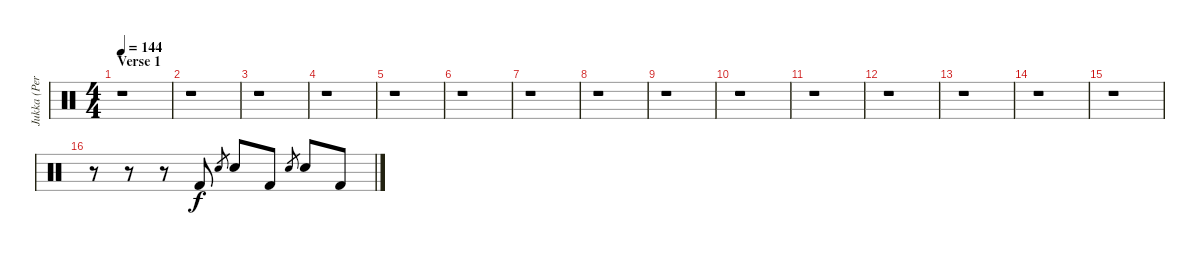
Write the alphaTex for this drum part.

\track ("Jukka (Percussion)" "Jukka (Per") {instrument percussion}
\staff {score}
\articulation defaults
\ts (4 4)
\section ("" "Verse 1")
\tempo 144
\clef neutral
\ks c
r.1{dy f} |
r.1 |
r.1 |
r.1 |
r.1 |
r.1 |
r.1 |
r.1 |
r.1 |
r.1 |
r.1 |
r.1 |
r.1 |
r.1 |
r.1 |
r.8 r.8 r.8 "Kick (hit) 2".8 "Electric Snare (hit)".8{gr} "Electric Snare (hit)".8 "Kick (hit) 2".8 "Electric Snare (hit)".8{gr} "Electric Snare (hit)".8 "Kick (hit) 2".8
